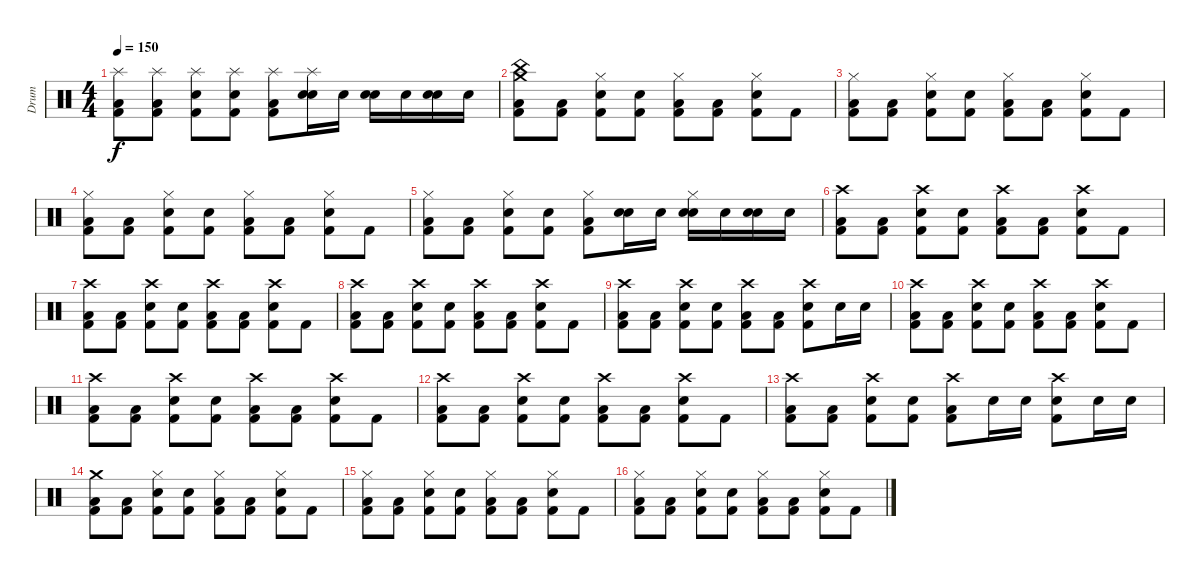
\track ("Drum" "Drum") {instrument percussion}
\staff {score}
\articulation defaults
\ts (4 4)
\tempo 150
\clef neutral
\ks c
("Splash (hit)" "Low Floor Tom (hit)" "Kick (hit) 2").8{dy f} ("Splash (hit)" "Low Floor Tom (hit)" "Kick (hit) 2").8 ("Splash (hit)" "Snare (hit) 2" "Kick (hit) 2").8 ("Splash (hit)" "Snare (hit) 2" "Kick (hit) 2").8 ("Splash (hit)" "Low Floor Tom (hit)" "Kick (hit) 2").8 ("Splash (hit)" "Electric Snare (hit)" "Snare (hit) 2").16 "Electric Snare (hit)".16 ("Electric Snare (hit)" "Snare (hit) 2").16 "Electric Snare (hit)".16 ("Electric Snare (hit)" "Snare (hit) 2").16 "Electric Snare (hit)".16 |
("Crash medium (hit)" "China (hit)" "Low Floor Tom (hit)" "Kick (hit) 2").8 ("Low Floor Tom (hit)" "Kick (hit) 2").8 ("Hi-Hat (closed)" "Snare (hit) 2" "Kick (hit) 2").8 ("Snare (hit) 2" "Kick (hit) 2").8 ("Hi-Hat (closed)" "Low Floor Tom (hit)" "Kick (hit) 2").8 ("Low Floor Tom (hit)" "Kick (hit) 2").8 ("Hi-Hat (closed)" "Snare (hit) 2" "Kick (hit) 2").8 "Kick (hit) 2".8 |
("Hi-Hat (closed)" "Low Floor Tom (hit)" "Kick (hit) 2").8 ("Low Floor Tom (hit)" "Kick (hit) 2").8 ("Hi-Hat (closed)" "Snare (hit) 2" "Kick (hit) 2").8 ("Snare (hit) 2" "Kick (hit) 2").8 ("Hi-Hat (closed)" "Low Floor Tom (hit)" "Kick (hit) 2").8 ("Low Floor Tom (hit)" "Kick (hit) 2").8 ("Hi-Hat (closed)" "Snare (hit) 2" "Kick (hit) 2").8 "Kick (hit) 2".8 |
("Hi-Hat (closed)" "Low Floor Tom (hit)" "Kick (hit) 2").8 ("Low Floor Tom (hit)" "Kick (hit) 2").8 ("Hi-Hat (closed)" "Snare (hit) 2" "Kick (hit) 2").8 ("Snare (hit) 2" "Kick (hit) 2").8 ("Hi-Hat (closed)" "Low Floor Tom (hit)" "Kick (hit) 2").8 ("Low Floor Tom (hit)" "Kick (hit) 2").8 ("Hi-Hat (closed)" "Snare (hit) 2" "Kick (hit) 2").8 "Kick (hit) 2".8 |
("Hi-Hat (closed)" "Low Floor Tom (hit)" "Kick (hit) 2").8 ("Low Floor Tom (hit)" "Kick (hit) 2").8 ("Hi-Hat (closed)" "Snare (hit) 2" "Kick (hit) 2").8 ("Snare (hit) 2" "Kick (hit) 2").8 ("Hi-Hat (closed)" "Low Floor Tom (hit)" "Kick (hit) 2").8 ("Electric Snare (hit)" "Snare (hit) 2").16 "Electric Snare (hit)".16 ("Hi-Hat (closed)" "Electric Snare (hit)" "Snare (hit) 2").16 "Electric Snare (hit)".16 ("Electric Snare (hit)" "Snare (hit) 2").16 "Electric Snare (hit)".16 |
("Crash high (hit)" "Low Floor Tom (hit)" "Kick (hit) 2").8 ("Low Floor Tom (hit)" "Kick (hit) 2").8 ("Crash high (hit)" "Snare (hit) 2" "Kick (hit) 2").8 ("Snare (hit) 2" "Kick (hit) 2").8 ("Crash high (hit)" "Low Floor Tom (hit)" "Kick (hit) 2").8 ("Low Floor Tom (hit)" "Kick (hit) 2").8 ("Crash high (hit)" "Snare (hit) 2" "Kick (hit) 2").8 "Kick (hit) 2".8 |
("Crash high (hit)" "Low Floor Tom (hit)" "Kick (hit) 2").8 ("Low Floor Tom (hit)" "Kick (hit) 2").8 ("Crash high (hit)" "Snare (hit) 2" "Kick (hit) 2").8 ("Snare (hit) 2" "Kick (hit) 2").8 ("Crash high (hit)" "Low Floor Tom (hit)" "Kick (hit) 2").8 ("Low Floor Tom (hit)" "Kick (hit) 2").8 ("Crash high (hit)" "Snare (hit) 2" "Kick (hit) 2").8 "Kick (hit) 2".8 |
("Crash high (hit)" "Low Floor Tom (hit)" "Kick (hit) 2").8 ("Low Floor Tom (hit)" "Kick (hit) 2").8 ("Crash high (hit)" "Snare (hit) 2" "Kick (hit) 2").8 ("Snare (hit) 2" "Kick (hit) 2").8 ("Crash high (hit)" "Low Floor Tom (hit)" "Kick (hit) 2").8 ("Low Floor Tom (hit)" "Kick (hit) 2").8 ("Crash high (hit)" "Snare (hit) 2" "Kick (hit) 2").8 "Kick (hit) 2".8 |
("Crash high (hit)" "Low Floor Tom (hit)" "Kick (hit) 2").8 ("Low Floor Tom (hit)" "Kick (hit) 2").8 ("Crash high (hit)" "Snare (hit) 2" "Kick (hit) 2").8 ("Snare (hit) 2" "Kick (hit) 2").8 ("Crash high (hit)" "Low Floor Tom (hit)" "Kick (hit) 2").8 ("Low Floor Tom (hit)" "Kick (hit) 2").8 ("Crash high (hit)" "Snare (hit) 2" "Kick (hit) 2").8 "Electric Snare (hit)".16 "Electric Snare (hit)".16 |
("Crash high (hit)" "Low Floor Tom (hit)" "Kick (hit) 2").8 ("Low Floor Tom (hit)" "Kick (hit) 2").8 ("Crash high (hit)" "Snare (hit) 2" "Kick (hit) 2").8 ("Snare (hit) 2" "Kick (hit) 2").8 ("Crash high (hit)" "Low Floor Tom (hit)" "Kick (hit) 2").8 ("Low Floor Tom (hit)" "Kick (hit) 2").8 ("Crash high (hit)" "Snare (hit) 2" "Kick (hit) 2").8 "Kick (hit) 2".8 |
("Crash high (hit)" "Low Floor Tom (hit)" "Kick (hit) 2").8 ("Low Floor Tom (hit)" "Kick (hit) 2").8 ("Crash high (hit)" "Snare (hit) 2" "Kick (hit) 2").8 ("Snare (hit) 2" "Kick (hit) 2").8 ("Crash high (hit)" "Low Floor Tom (hit)" "Kick (hit) 2").8 ("Low Floor Tom (hit)" "Kick (hit) 2").8 ("Crash high (hit)" "Snare (hit) 2" "Kick (hit) 2").8 "Kick (hit) 2".8 |
("Crash high (hit)" "Low Floor Tom (hit)" "Kick (hit) 2").8 ("Low Floor Tom (hit)" "Kick (hit) 2").8 ("Crash high (hit)" "Snare (hit) 2" "Kick (hit) 2").8 ("Snare (hit) 2" "Kick (hit) 2").8 ("Crash high (hit)" "Low Floor Tom (hit)" "Kick (hit) 2").8 ("Low Floor Tom (hit)" "Kick (hit) 2").8 ("Crash high (hit)" "Snare (hit) 2" "Kick (hit) 2").8 "Kick (hit) 2".8 |
("Crash high (hit)" "Low Floor Tom (hit)" "Kick (hit) 2").8 ("Low Floor Tom (hit)" "Kick (hit) 2").8 ("Crash high (hit)" "Snare (hit) 2" "Kick (hit) 2").8 ("Snare (hit) 2" "Kick (hit) 2").8 ("Crash high (hit)" "Low Floor Tom (hit)" "Kick (hit) 2").8 "Electric Snare (hit)".16 "Electric Snare (hit)".16 ("Crash high (hit)" "Snare (hit) 2" "Kick (hit) 2").8 "Electric Snare (hit)".16 "Electric Snare (hit)".16 |
("Crash medium (hit)" "Low Floor Tom (hit)" "Kick (hit) 2").8 ("Low Floor Tom (hit)" "Kick (hit) 2").8 ("Hi-Hat (closed)" "Snare (hit) 2" "Kick (hit) 2").8 ("Snare (hit) 2" "Kick (hit) 2").8 ("Hi-Hat (closed)" "Low Floor Tom (hit)" "Kick (hit) 2").8 ("Low Floor Tom (hit)" "Kick (hit) 2").8 ("Hi-Hat (closed)" "Snare (hit) 2" "Kick (hit) 2").8 "Kick (hit) 2".8 |
("Hi-Hat (closed)" "Low Floor Tom (hit)" "Kick (hit) 2").8 ("Low Floor Tom (hit)" "Kick (hit) 2").8 ("Hi-Hat (closed)" "Snare (hit) 2" "Kick (hit) 2").8 ("Snare (hit) 2" "Kick (hit) 2").8 ("Hi-Hat (closed)" "Low Floor Tom (hit)" "Kick (hit) 2").8 ("Low Floor Tom (hit)" "Kick (hit) 2").8 ("Hi-Hat (closed)" "Snare (hit) 2" "Kick (hit) 2").8 "Kick (hit) 2".8 |
("Hi-Hat (closed)" "Low Floor Tom (hit)" "Kick (hit) 2").8 ("Low Floor Tom (hit)" "Kick (hit) 2").8 ("Hi-Hat (closed)" "Snare (hit) 2" "Kick (hit) 2").8 ("Snare (hit) 2" "Kick (hit) 2").8 ("Hi-Hat (closed)" "Low Floor Tom (hit)" "Kick (hit) 2").8 ("Low Floor Tom (hit)" "Kick (hit) 2").8 ("Hi-Hat (closed)" "Snare (hit) 2" "Kick (hit) 2").8 "Kick (hit) 2".8
